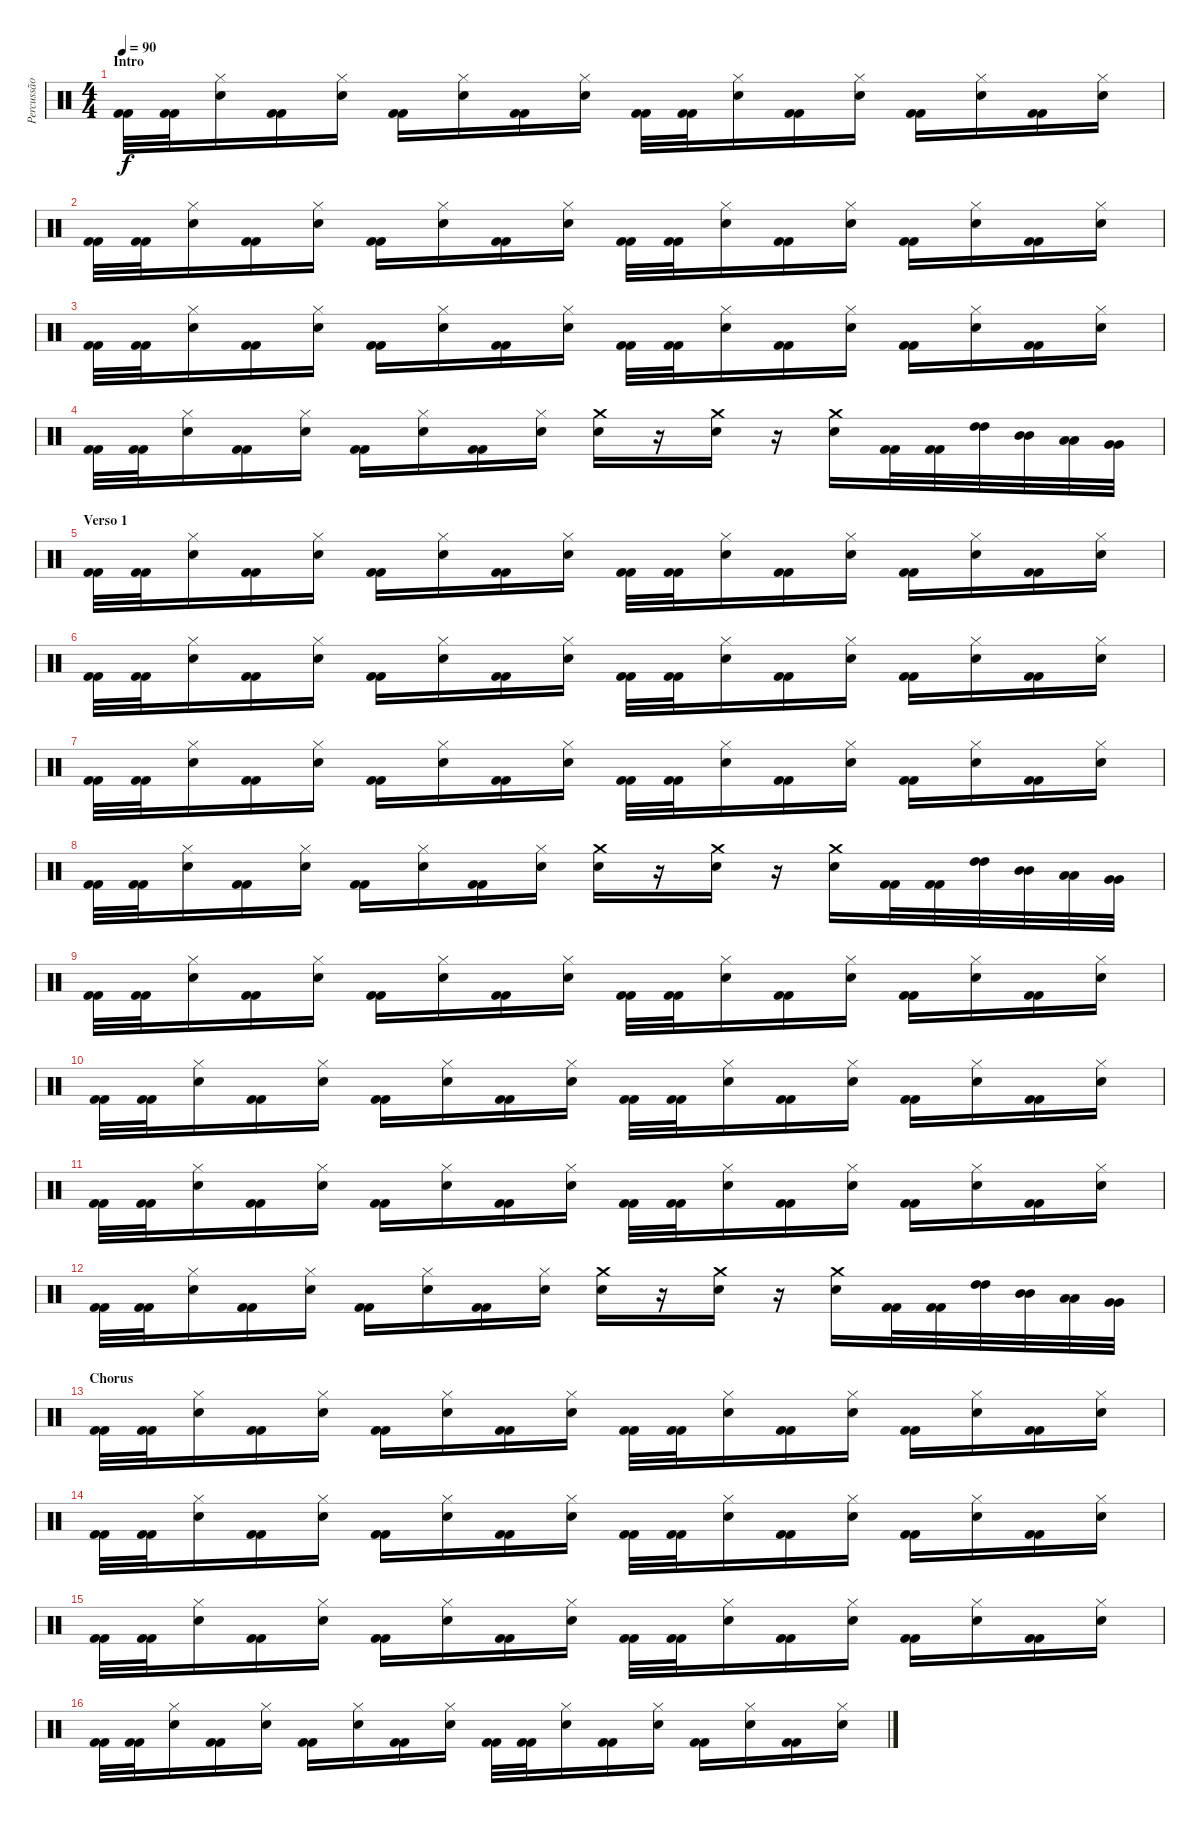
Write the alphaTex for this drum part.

\track ("Percussão" "Percussão") {instrument percussion}
\staff {score}
\articulation defaults
\ts (4 4)
\section ("" "Intro")
\tempo 90
\clef neutral
\ks c
("Kick (hit) 2" "Kick (hit) 2").32{dy f} ("Kick (hit) 2" "Kick (hit) 2").32 ("Hi-Hat (closed)" "Snare (hit) 2").16 ("Kick (hit) 2" "Kick (hit) 2").16 ("Hi-Hat (closed)" "Snare (hit) 2").16 ("Kick (hit) 2" "Kick (hit) 2").16 ("Hi-Hat (closed)" "Snare (hit) 2").16 ("Kick (hit) 2" "Kick (hit) 2").16 ("Hi-Hat (closed)" "Snare (hit) 2").16 ("Kick (hit) 2" "Kick (hit) 2").32 ("Kick (hit) 2" "Kick (hit) 2").32 ("Hi-Hat (closed)" "Snare (hit) 2").16 ("Kick (hit) 2" "Kick (hit) 2").16 ("Hi-Hat (closed)" "Snare (hit) 2").16 ("Kick (hit) 2" "Kick (hit) 2").16 ("Hi-Hat (closed)" "Snare (hit) 2").16 ("Kick (hit) 2" "Kick (hit) 2").16 ("Hi-Hat (closed)" "Snare (hit) 2").16 |
("Kick (hit) 2" "Kick (hit) 2").32 ("Kick (hit) 2" "Kick (hit) 2").32 ("Hi-Hat (closed)" "Snare (hit) 2").16 ("Kick (hit) 2" "Kick (hit) 2").16 ("Hi-Hat (closed)" "Snare (hit) 2").16 ("Kick (hit) 2" "Kick (hit) 2").16 ("Hi-Hat (closed)" "Snare (hit) 2").16 ("Kick (hit) 2" "Kick (hit) 2").16 ("Hi-Hat (closed)" "Snare (hit) 2").16 ("Kick (hit) 2" "Kick (hit) 2").32 ("Kick (hit) 2" "Kick (hit) 2").32 ("Hi-Hat (closed)" "Snare (hit) 2").16 ("Kick (hit) 2" "Kick (hit) 2").16 ("Hi-Hat (closed)" "Snare (hit) 2").16 ("Kick (hit) 2" "Kick (hit) 2").16 ("Hi-Hat (closed)" "Snare (hit) 2").16 ("Kick (hit) 2" "Kick (hit) 2").16 ("Hi-Hat (closed)" "Snare (hit) 2").16 |
("Kick (hit) 2" "Kick (hit) 2").32 ("Kick (hit) 2" "Kick (hit) 2").32 ("Hi-Hat (closed)" "Snare (hit) 2").16 ("Kick (hit) 2" "Kick (hit) 2").16 ("Hi-Hat (closed)" "Snare (hit) 2").16 ("Kick (hit) 2" "Kick (hit) 2").16 ("Hi-Hat (closed)" "Snare (hit) 2").16 ("Kick (hit) 2" "Kick (hit) 2").16 ("Hi-Hat (closed)" "Snare (hit) 2").16 ("Kick (hit) 2" "Kick (hit) 2").32 ("Kick (hit) 2" "Kick (hit) 2").32 ("Hi-Hat (closed)" "Snare (hit) 2").16 ("Kick (hit) 2" "Kick (hit) 2").16 ("Hi-Hat (closed)" "Snare (hit) 2").16 ("Kick (hit) 2" "Kick (hit) 2").16 ("Hi-Hat (closed)" "Snare (hit) 2").16 ("Kick (hit) 2" "Kick (hit) 2").16 ("Hi-Hat (closed)" "Snare (hit) 2").16 |
("Kick (hit) 2" "Kick (hit) 2").32 ("Kick (hit) 2" "Kick (hit) 2").32 ("Hi-Hat (closed)" "Snare (hit) 2").16 ("Kick (hit) 2" "Kick (hit) 2").16 ("Hi-Hat (closed)" "Snare (hit) 2").16 ("Kick (hit) 2" "Kick (hit) 2").16 ("Hi-Hat (closed)" "Snare (hit) 2").16 ("Kick (hit) 2" "Kick (hit) 2").16 ("Hi-Hat (closed)" "Snare (hit) 2").16 ("Crash medium (hit)" "Snare (hit) 2").16 r.16 ("Crash medium (hit)" "Snare (hit) 2").16 r.16 ("Crash medium (hit)" "Snare (hit) 2").16 ("Kick (hit) 2" "Kick (hit) 2").32 ("Kick (hit) 2" "Kick (hit) 2").32 ("High Tom (hit)" "High Tom (hit)").32 ("Mid Tom (hit)" "Mid Tom (hit)").32 ("Low Tom (hit)" "Low Tom (hit)").32 ("Very Low Tom (hit)" "Very Low Tom (hit)").32 |
\section ("" "Verso 1")
("Kick (hit) 2" "Kick (hit) 2").32 ("Kick (hit) 2" "Kick (hit) 2").32 ("Hi-Hat (closed)" "Snare (hit) 2").16 ("Kick (hit) 2" "Kick (hit) 2").16 ("Hi-Hat (closed)" "Snare (hit) 2").16 ("Kick (hit) 2" "Kick (hit) 2").16 ("Hi-Hat (closed)" "Snare (hit) 2").16 ("Kick (hit) 2" "Kick (hit) 2").16 ("Hi-Hat (closed)" "Snare (hit) 2").16 ("Kick (hit) 2" "Kick (hit) 2").32 ("Kick (hit) 2" "Kick (hit) 2").32 ("Hi-Hat (closed)" "Snare (hit) 2").16 ("Kick (hit) 2" "Kick (hit) 2").16 ("Hi-Hat (closed)" "Snare (hit) 2").16 ("Kick (hit) 2" "Kick (hit) 2").16 ("Hi-Hat (closed)" "Snare (hit) 2").16 ("Kick (hit) 2" "Kick (hit) 2").16 ("Hi-Hat (closed)" "Snare (hit) 2").16 |
("Kick (hit) 2" "Kick (hit) 2").32 ("Kick (hit) 2" "Kick (hit) 2").32 ("Hi-Hat (closed)" "Snare (hit) 2").16 ("Kick (hit) 2" "Kick (hit) 2").16 ("Hi-Hat (closed)" "Snare (hit) 2").16 ("Kick (hit) 2" "Kick (hit) 2").16 ("Hi-Hat (closed)" "Snare (hit) 2").16 ("Kick (hit) 2" "Kick (hit) 2").16 ("Hi-Hat (closed)" "Snare (hit) 2").16 ("Kick (hit) 2" "Kick (hit) 2").32 ("Kick (hit) 2" "Kick (hit) 2").32 ("Hi-Hat (closed)" "Snare (hit) 2").16 ("Kick (hit) 2" "Kick (hit) 2").16 ("Hi-Hat (closed)" "Snare (hit) 2").16 ("Kick (hit) 2" "Kick (hit) 2").16 ("Hi-Hat (closed)" "Snare (hit) 2").16 ("Kick (hit) 2" "Kick (hit) 2").16 ("Hi-Hat (closed)" "Snare (hit) 2").16 |
("Kick (hit) 2" "Kick (hit) 2").32 ("Kick (hit) 2" "Kick (hit) 2").32 ("Hi-Hat (closed)" "Snare (hit) 2").16 ("Kick (hit) 2" "Kick (hit) 2").16 ("Hi-Hat (closed)" "Snare (hit) 2").16 ("Kick (hit) 2" "Kick (hit) 2").16 ("Hi-Hat (closed)" "Snare (hit) 2").16 ("Kick (hit) 2" "Kick (hit) 2").16 ("Hi-Hat (closed)" "Snare (hit) 2").16 ("Kick (hit) 2" "Kick (hit) 2").32 ("Kick (hit) 2" "Kick (hit) 2").32 ("Hi-Hat (closed)" "Snare (hit) 2").16 ("Kick (hit) 2" "Kick (hit) 2").16 ("Hi-Hat (closed)" "Snare (hit) 2").16 ("Kick (hit) 2" "Kick (hit) 2").16 ("Hi-Hat (closed)" "Snare (hit) 2").16 ("Kick (hit) 2" "Kick (hit) 2").16 ("Hi-Hat (closed)" "Snare (hit) 2").16 |
("Kick (hit) 2" "Kick (hit) 2").32 ("Kick (hit) 2" "Kick (hit) 2").32 ("Hi-Hat (closed)" "Snare (hit) 2").16 ("Kick (hit) 2" "Kick (hit) 2").16 ("Hi-Hat (closed)" "Snare (hit) 2").16 ("Kick (hit) 2" "Kick (hit) 2").16 ("Hi-Hat (closed)" "Snare (hit) 2").16 ("Kick (hit) 2" "Kick (hit) 2").16 ("Hi-Hat (closed)" "Snare (hit) 2").16 ("Crash medium (hit)" "Snare (hit) 2").16 r.16 ("Crash medium (hit)" "Snare (hit) 2").16 r.16 ("Crash medium (hit)" "Snare (hit) 2").16 ("Kick (hit) 2" "Kick (hit) 2").32 ("Kick (hit) 2" "Kick (hit) 2").32 ("High Tom (hit)" "High Tom (hit)").32 ("Mid Tom (hit)" "Mid Tom (hit)").32 ("Low Tom (hit)" "Low Tom (hit)").32 ("Very Low Tom (hit)" "Very Low Tom (hit)").32 |
("Kick (hit) 2" "Kick (hit) 2").32 ("Kick (hit) 2" "Kick (hit) 2").32 ("Hi-Hat (closed)" "Snare (hit) 2").16 ("Kick (hit) 2" "Kick (hit) 2").16 ("Hi-Hat (closed)" "Snare (hit) 2").16 ("Kick (hit) 2" "Kick (hit) 2").16 ("Hi-Hat (closed)" "Snare (hit) 2").16 ("Kick (hit) 2" "Kick (hit) 2").16 ("Hi-Hat (closed)" "Snare (hit) 2").16 ("Kick (hit) 2" "Kick (hit) 2").32 ("Kick (hit) 2" "Kick (hit) 2").32 ("Hi-Hat (closed)" "Snare (hit) 2").16 ("Kick (hit) 2" "Kick (hit) 2").16 ("Hi-Hat (closed)" "Snare (hit) 2").16 ("Kick (hit) 2" "Kick (hit) 2").16 ("Hi-Hat (closed)" "Snare (hit) 2").16 ("Kick (hit) 2" "Kick (hit) 2").16 ("Hi-Hat (closed)" "Snare (hit) 2").16 |
("Kick (hit) 2" "Kick (hit) 2").32 ("Kick (hit) 2" "Kick (hit) 2").32 ("Hi-Hat (closed)" "Snare (hit) 2").16 ("Kick (hit) 2" "Kick (hit) 2").16 ("Hi-Hat (closed)" "Snare (hit) 2").16 ("Kick (hit) 2" "Kick (hit) 2").16 ("Hi-Hat (closed)" "Snare (hit) 2").16 ("Kick (hit) 2" "Kick (hit) 2").16 ("Hi-Hat (closed)" "Snare (hit) 2").16 ("Kick (hit) 2" "Kick (hit) 2").32 ("Kick (hit) 2" "Kick (hit) 2").32 ("Hi-Hat (closed)" "Snare (hit) 2").16 ("Kick (hit) 2" "Kick (hit) 2").16 ("Hi-Hat (closed)" "Snare (hit) 2").16 ("Kick (hit) 2" "Kick (hit) 2").16 ("Hi-Hat (closed)" "Snare (hit) 2").16 ("Kick (hit) 2" "Kick (hit) 2").16 ("Hi-Hat (closed)" "Snare (hit) 2").16 |
("Kick (hit) 2" "Kick (hit) 2").32 ("Kick (hit) 2" "Kick (hit) 2").32 ("Hi-Hat (closed)" "Snare (hit) 2").16 ("Kick (hit) 2" "Kick (hit) 2").16 ("Hi-Hat (closed)" "Snare (hit) 2").16 ("Kick (hit) 2" "Kick (hit) 2").16 ("Hi-Hat (closed)" "Snare (hit) 2").16 ("Kick (hit) 2" "Kick (hit) 2").16 ("Hi-Hat (closed)" "Snare (hit) 2").16 ("Kick (hit) 2" "Kick (hit) 2").32 ("Kick (hit) 2" "Kick (hit) 2").32 ("Hi-Hat (closed)" "Snare (hit) 2").16 ("Kick (hit) 2" "Kick (hit) 2").16 ("Hi-Hat (closed)" "Snare (hit) 2").16 ("Kick (hit) 2" "Kick (hit) 2").16 ("Hi-Hat (closed)" "Snare (hit) 2").16 ("Kick (hit) 2" "Kick (hit) 2").16 ("Hi-Hat (closed)" "Snare (hit) 2").16 |
("Kick (hit) 2" "Kick (hit) 2").32 ("Kick (hit) 2" "Kick (hit) 2").32 ("Hi-Hat (closed)" "Snare (hit) 2").16 ("Kick (hit) 2" "Kick (hit) 2").16 ("Hi-Hat (closed)" "Snare (hit) 2").16 ("Kick (hit) 2" "Kick (hit) 2").16 ("Hi-Hat (closed)" "Snare (hit) 2").16 ("Kick (hit) 2" "Kick (hit) 2").16 ("Hi-Hat (closed)" "Snare (hit) 2").16 ("Crash medium (hit)" "Snare (hit) 2").16 r.16 ("Crash medium (hit)" "Snare (hit) 2").16 r.16 ("Crash medium (hit)" "Snare (hit) 2").16 ("Kick (hit) 2" "Kick (hit) 2").32 ("Kick (hit) 2" "Kick (hit) 2").32 ("High Tom (hit)" "High Tom (hit)").32 ("Mid Tom (hit)" "Mid Tom (hit)").32 ("Low Tom (hit)" "Low Tom (hit)").32 ("Very Low Tom (hit)" "Very Low Tom (hit)").32 |
\section ("" "Chorus")
("Kick (hit) 2" "Kick (hit) 2").32 ("Kick (hit) 2" "Kick (hit) 2").32 ("Hi-Hat (closed)" "Snare (hit) 2").16 ("Kick (hit) 2" "Kick (hit) 2").16 ("Hi-Hat (closed)" "Snare (hit) 2").16 ("Kick (hit) 2" "Kick (hit) 2").16 ("Hi-Hat (closed)" "Snare (hit) 2").16 ("Kick (hit) 2" "Kick (hit) 2").16 ("Hi-Hat (closed)" "Snare (hit) 2").16 ("Kick (hit) 2" "Kick (hit) 2").32 ("Kick (hit) 2" "Kick (hit) 2").32 ("Hi-Hat (closed)" "Snare (hit) 2").16 ("Kick (hit) 2" "Kick (hit) 2").16 ("Hi-Hat (closed)" "Snare (hit) 2").16 ("Kick (hit) 2" "Kick (hit) 2").16 ("Hi-Hat (closed)" "Snare (hit) 2").16 ("Kick (hit) 2" "Kick (hit) 2").16 ("Hi-Hat (closed)" "Snare (hit) 2").16 |
("Kick (hit) 2" "Kick (hit) 2").32 ("Kick (hit) 2" "Kick (hit) 2").32 ("Hi-Hat (closed)" "Snare (hit) 2").16 ("Kick (hit) 2" "Kick (hit) 2").16 ("Hi-Hat (closed)" "Snare (hit) 2").16 ("Kick (hit) 2" "Kick (hit) 2").16 ("Hi-Hat (closed)" "Snare (hit) 2").16 ("Kick (hit) 2" "Kick (hit) 2").16 ("Hi-Hat (closed)" "Snare (hit) 2").16 ("Kick (hit) 2" "Kick (hit) 2").32 ("Kick (hit) 2" "Kick (hit) 2").32 ("Hi-Hat (closed)" "Snare (hit) 2").16 ("Kick (hit) 2" "Kick (hit) 2").16 ("Hi-Hat (closed)" "Snare (hit) 2").16 ("Kick (hit) 2" "Kick (hit) 2").16 ("Hi-Hat (closed)" "Snare (hit) 2").16 ("Kick (hit) 2" "Kick (hit) 2").16 ("Hi-Hat (closed)" "Snare (hit) 2").16 |
("Kick (hit) 2" "Kick (hit) 2").32 ("Kick (hit) 2" "Kick (hit) 2").32 ("Hi-Hat (closed)" "Snare (hit) 2").16 ("Kick (hit) 2" "Kick (hit) 2").16 ("Hi-Hat (closed)" "Snare (hit) 2").16 ("Kick (hit) 2" "Kick (hit) 2").16 ("Hi-Hat (closed)" "Snare (hit) 2").16 ("Kick (hit) 2" "Kick (hit) 2").16 ("Hi-Hat (closed)" "Snare (hit) 2").16 ("Kick (hit) 2" "Kick (hit) 2").32 ("Kick (hit) 2" "Kick (hit) 2").32 ("Hi-Hat (closed)" "Snare (hit) 2").16 ("Kick (hit) 2" "Kick (hit) 2").16 ("Hi-Hat (closed)" "Snare (hit) 2").16 ("Kick (hit) 2" "Kick (hit) 2").16 ("Hi-Hat (closed)" "Snare (hit) 2").16 ("Kick (hit) 2" "Kick (hit) 2").16 ("Hi-Hat (closed)" "Snare (hit) 2").16 |
("Kick (hit) 2" "Kick (hit) 2").32 ("Kick (hit) 2" "Kick (hit) 2").32 ("Hi-Hat (closed)" "Snare (hit) 2").16 ("Kick (hit) 2" "Kick (hit) 2").16 ("Hi-Hat (closed)" "Snare (hit) 2").16 ("Kick (hit) 2" "Kick (hit) 2").16 ("Hi-Hat (closed)" "Snare (hit) 2").16 ("Kick (hit) 2" "Kick (hit) 2").16 ("Hi-Hat (closed)" "Snare (hit) 2").16 ("Kick (hit) 2" "Kick (hit) 2").32 ("Kick (hit) 2" "Kick (hit) 2").32 ("Hi-Hat (closed)" "Snare (hit) 2").16 ("Kick (hit) 2" "Kick (hit) 2").16 ("Hi-Hat (closed)" "Snare (hit) 2").16 ("Kick (hit) 2" "Kick (hit) 2").16 ("Hi-Hat (closed)" "Snare (hit) 2").16 ("Kick (hit) 2" "Kick (hit) 2").16 ("Hi-Hat (closed)" "Snare (hit) 2").16
